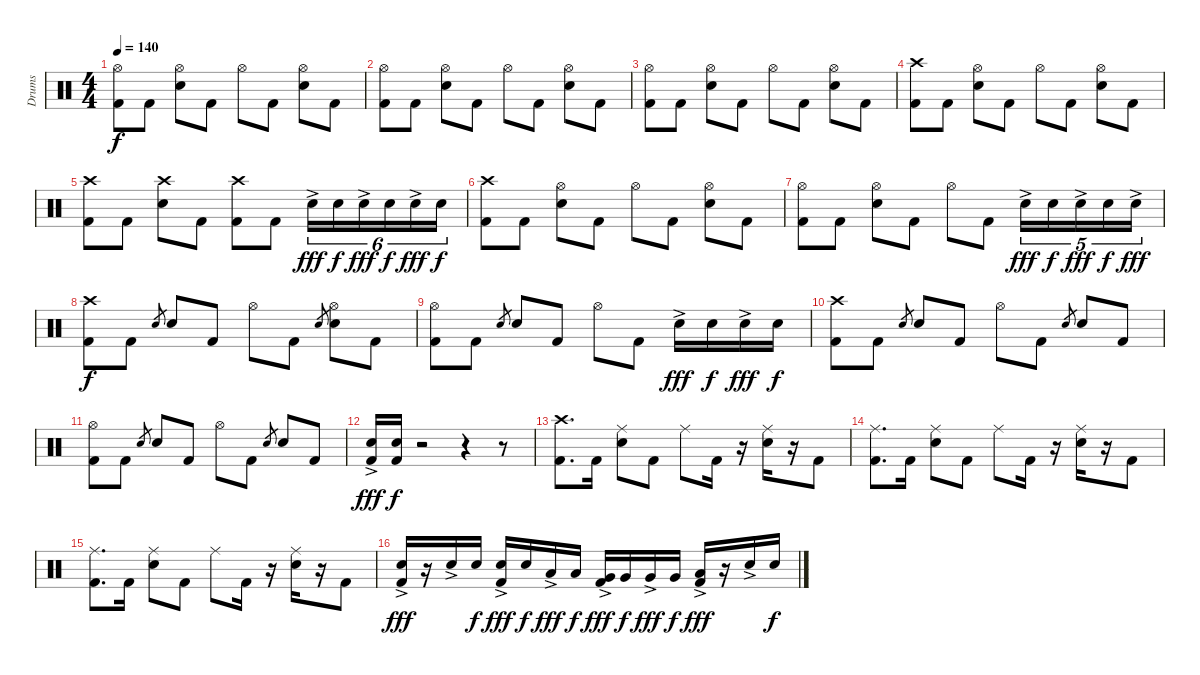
\track ("Drums" "Drums") {instrument percussion}
\staff {score}
\articulation defaults
\ts (4 4)
\tempo 140
\clef neutral
\ks c
("Hi-Hat (open)" "Kick (hit) 2").8{dy f} "Kick (hit) 2".8 ("Hi-Hat (open)" "Snare (hit) 2").8 "Kick (hit) 2".8 "Hi-Hat (open)".8 "Kick (hit) 2".8 ("Hi-Hat (open)" "Snare (hit) 2").8 "Kick (hit) 2".8 |
("Hi-Hat (open)" "Kick (hit) 2").8 "Kick (hit) 2".8 ("Hi-Hat (open)" "Snare (hit) 2").8 "Kick (hit) 2".8 "Hi-Hat (open)".8 "Kick (hit) 2".8 ("Hi-Hat (open)" "Snare (hit) 2").8 "Kick (hit) 2".8 |
("Hi-Hat (open)" "Kick (hit) 2").8 "Kick (hit) 2".8 ("Hi-Hat (open)" "Snare (hit) 2").8 "Kick (hit) 2".8 "Hi-Hat (open)".8 "Kick (hit) 2".8 ("Hi-Hat (open)" "Snare (hit) 2").8 "Kick (hit) 2".8 |
("Crash high (hit)" "Kick (hit) 2").8 "Kick (hit) 2".8 ("Hi-Hat (open)" "Snare (hit) 2").8 "Kick (hit) 2".8 "Hi-Hat (open)".8 "Kick (hit) 2".8 ("Hi-Hat (open)" "Snare (hit) 2").8 "Kick (hit) 2".8 |
("Crash high (hit)" "Kick (hit) 2").8 "Kick (hit) 2".8 ("Crash high (hit)" "Snare (hit) 2").8 "Kick (hit) 2".8 ("Crash high (hit)" "Kick (hit) 2").8 "Kick (hit) 2".8 "Snare (hit) 2"{ac}.16{tu (6 4) dy fff} "Snare (hit) 2".16{tu (6 4) dy f} "Snare (hit) 2"{ac}.16{tu (6 4) dy fff} "Snare (hit) 2".16{tu (6 4) dy f} "Snare (hit) 2"{ac}.16{tu (6 4) dy fff} "Snare (hit) 2".16{tu (6 4) dy f} |
("Crash high (hit)" "Kick (hit) 2").8 "Kick (hit) 2".8 ("Hi-Hat (open)" "Snare (hit) 2").8 "Kick (hit) 2".8 "Hi-Hat (open)".8 "Kick (hit) 2".8 ("Hi-Hat (open)" "Snare (hit) 2").8 "Kick (hit) 2".8 |
("Hi-Hat (open)" "Kick (hit) 2").8 "Kick (hit) 2".8 ("Hi-Hat (open)" "Snare (hit) 2").8 "Kick (hit) 2".8 "Hi-Hat (open)".8 "Kick (hit) 2".8 "Snare (hit) 2"{ac}.16{tu (5 4) dy fff} "Snare (hit) 2".16{tu (5 4) dy f} "Snare (hit) 2"{ac}.16{tu (5 4) dy fff} "Snare (hit) 2".16{tu (5 4) dy f} "Snare (hit) 2"{ac}.16{tu (5 4) dy fff} |
("Crash high (hit)" "Kick (hit) 2").8{dy f} "Kick (hit) 2".8 "Snare (hit) 2".8{gr} "Snare (hit) 2".8 "Kick (hit) 2".8 "Hi-Hat (open)".8 "Kick (hit) 2".8 "Snare (hit) 2".8{gr} ("Hi-Hat (open)" "Snare (hit) 2").8 "Kick (hit) 2".8 |
("Hi-Hat (open)" "Kick (hit) 2").8 "Kick (hit) 2".8 "Snare (hit) 2".8{gr} "Snare (hit) 2".8 "Kick (hit) 2".8 "Hi-Hat (open)".8 "Kick (hit) 2".8 "Snare (hit) 2"{ac}.16{dy fff} "Snare (hit) 2".16{dy f} "Snare (hit) 2"{ac}.16{dy fff} "Snare (hit) 2".16{dy f} |
("Crash high (hit)" "Kick (hit) 2").8 "Kick (hit) 2".8 "Snare (hit) 2".8{gr} "Snare (hit) 2".8 "Kick (hit) 2".8 "Hi-Hat (open)".8 "Kick (hit) 2".8 "Snare (hit) 2".8{gr} "Snare (hit) 2".8 "Kick (hit) 2".8 |
("Hi-Hat (open)" "Kick (hit) 2").8 "Kick (hit) 2".8 "Snare (hit) 2".8{gr} "Snare (hit) 2".8 "Kick (hit) 2".8 "Hi-Hat (open)".8 "Kick (hit) 2".8 "Snare (hit) 2".8{gr} "Snare (hit) 2".8 "Kick (hit) 2".8 |
("Snare (hit) 2"{ac} "Kick (hit) 2").16{dy fff} ("Snare (hit) 2" "Kick (hit) 2").16{dy f} r.2 r.4 r.8 |
("Crash high (hit)" "Kick (hit) 2").8{d} "Kick (hit) 2".16 ("Ride (middle)" "Snare (hit) 2").8 "Kick (hit) 2".8 "Ride (middle)".8 "Kick (hit) 2".16 r.16 ("Ride (middle)" "Snare (hit) 2").16 r.16 "Kick (hit) 2".8 |
("Ride (middle)" "Kick (hit) 2").8{d} "Kick (hit) 2".16 ("Ride (middle)" "Snare (hit) 2").8 "Kick (hit) 2".8 "Ride (middle)".8 "Kick (hit) 2".16 r.16 ("Ride (middle)" "Snare (hit) 2").16 r.16 "Kick (hit) 2".8 |
("Ride (middle)" "Kick (hit) 2").8{d} "Kick (hit) 2".16 ("Ride (middle)" "Snare (hit) 2").8 "Kick (hit) 2".8 "Ride (middle)".8 "Kick (hit) 2".16 r.16 ("Ride (middle)" "Snare (hit) 2").16 r.16 "Kick (hit) 2".8 |
("Snare (hit) 2"{ac} "Kick (hit) 2").16{dy fff} r.16 "Snare (hit) 2"{ac}.16 "Snare (hit) 2".16{dy f} ("Snare (hit) 2"{ac} "Kick (hit) 2").16{dy fff} "Snare (hit) 2".16{dy f} "Low Tom (hit)"{ac}.16{dy fff} "Low Tom (hit)".16{dy f} ("Very Low Tom (hit)"{ac} "Kick (hit) 2").16{dy fff} "Very Low Tom (hit)".16{dy f} "Very Low Tom (hit)"{ac}.16{dy fff} "Very Low Tom (hit)".16{dy f} ("Low Floor Tom (hit)"{ac} "Kick (hit) 2").16{dy fff} r.16 "Snare (hit) 2"{ac}.16 "Snare (hit) 2".16{dy f}
